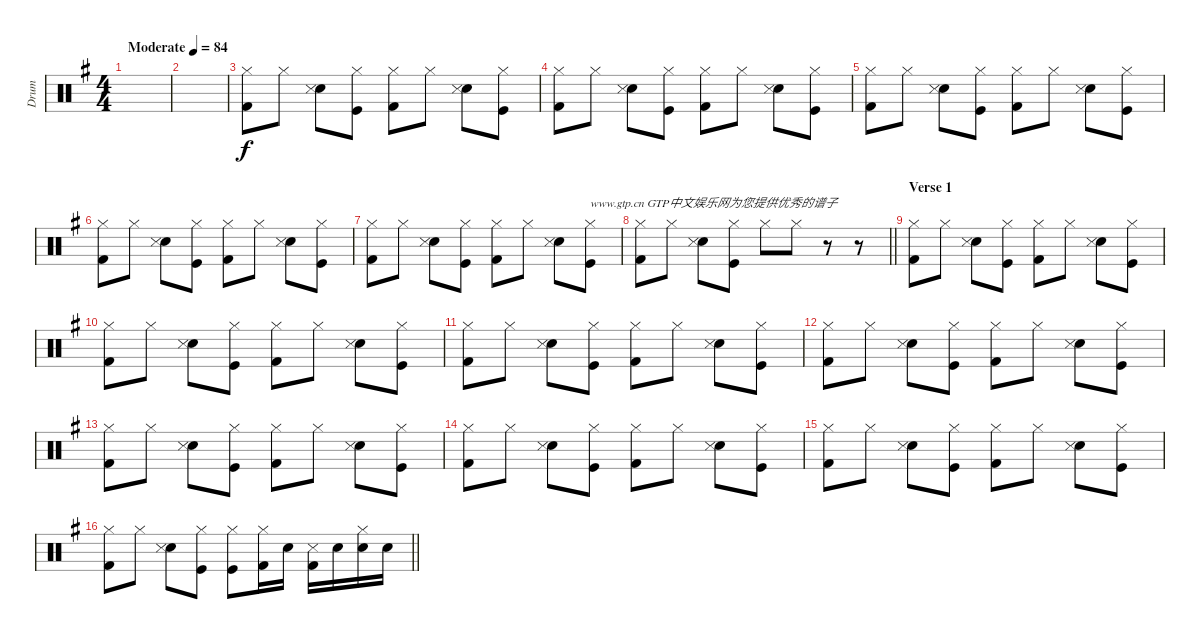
\track ("Drum" "Drum") {instrument percussion}
\staff {score}
\articulation defaults
\ts (4 4)
\tempo (84 "Moderate")
\clef neutral
\ks g
|
|
("Kick (hit) 2" "Hi-Hat (closed)").8 "Hi-Hat (closed)".8 ("Electric Snare (hit)" "Snare (side stick) 3").8 ("Kick (hit)" "Hi-Hat (closed)").8 ("Kick (hit) 2" "Hi-Hat (closed)").8 "Hi-Hat (closed)".8 ("Electric Snare (hit)" "Snare (side stick) 3").8 ("Kick (hit)" "Hi-Hat (closed)").8 |
("Kick (hit) 2" "Hi-Hat (closed)").8 "Hi-Hat (closed)".8 ("Electric Snare (hit)" "Snare (side stick) 3").8 ("Kick (hit)" "Hi-Hat (closed)").8 ("Kick (hit) 2" "Hi-Hat (closed)").8 "Hi-Hat (closed)".8 ("Electric Snare (hit)" "Snare (side stick) 3").8 ("Kick (hit)" "Hi-Hat (closed)").8 |
("Kick (hit) 2" "Hi-Hat (closed)").8 "Hi-Hat (closed)".8 ("Electric Snare (hit)" "Snare (side stick) 3").8 ("Kick (hit)" "Hi-Hat (closed)").8 ("Kick (hit) 2" "Hi-Hat (closed)").8 "Hi-Hat (closed)".8 ("Electric Snare (hit)" "Snare (side stick) 3").8 ("Kick (hit)" "Hi-Hat (closed)").8 |
("Kick (hit) 2" "Hi-Hat (closed)").8 "Hi-Hat (closed)".8 ("Electric Snare (hit)" "Snare (side stick) 3").8 ("Kick (hit)" "Hi-Hat (closed)").8 ("Kick (hit) 2" "Hi-Hat (closed)").8 "Hi-Hat (closed)".8 ("Electric Snare (hit)" "Snare (side stick) 3").8 ("Kick (hit)" "Hi-Hat (closed)").8 |
("Kick (hit) 2" "Hi-Hat (closed)").8 "Hi-Hat (closed)".8 ("Electric Snare (hit)" "Snare (side stick) 3").8 ("Kick (hit)" "Hi-Hat (closed)").8 ("Kick (hit) 2" "Hi-Hat (closed)").8 "Hi-Hat (closed)".8 ("Electric Snare (hit)" "Snare (side stick) 3").8 ("Kick (hit)" "Hi-Hat (closed)").8{txt "www.gtp.cn GTP中文娱乐网为您提供优秀的谱子"} |
\barLineRight lightlight
("Kick (hit) 2" "Hi-Hat (closed)").8 "Hi-Hat (closed)".8 ("Electric Snare (hit)" "Snare (side stick) 3").8 ("Kick (hit)" "Hi-Hat (closed)").8 "Hi-Hat (closed)".8 "Hi-Hat (closed)".8 r.8 r.8 |
\section ("" "Verse 1")
("Kick (hit) 2" "Hi-Hat (closed)").8 "Hi-Hat (closed)".8 ("Electric Snare (hit)" "Snare (side stick) 3").8 ("Kick (hit)" "Hi-Hat (closed)").8 ("Kick (hit) 2" "Hi-Hat (closed)").8 "Hi-Hat (closed)".8 ("Electric Snare (hit)" "Snare (side stick) 3").8 ("Kick (hit)" "Hi-Hat (closed)").8 |
("Kick (hit) 2" "Hi-Hat (closed)").8 "Hi-Hat (closed)".8 ("Electric Snare (hit)" "Snare (side stick) 3").8 ("Kick (hit)" "Hi-Hat (closed)").8 ("Kick (hit) 2" "Hi-Hat (closed)").8 "Hi-Hat (closed)".8 ("Electric Snare (hit)" "Snare (side stick) 3").8 ("Kick (hit)" "Hi-Hat (closed)").8 |
("Kick (hit) 2" "Hi-Hat (closed)").8 "Hi-Hat (closed)".8 ("Electric Snare (hit)" "Snare (side stick) 3").8 ("Kick (hit)" "Hi-Hat (closed)").8 ("Kick (hit) 2" "Hi-Hat (closed)").8 "Hi-Hat (closed)".8 ("Electric Snare (hit)" "Snare (side stick) 3").8 ("Kick (hit)" "Hi-Hat (closed)").8 |
("Kick (hit) 2" "Hi-Hat (closed)").8 "Hi-Hat (closed)".8 ("Electric Snare (hit)" "Snare (side stick) 3").8 ("Kick (hit)" "Hi-Hat (closed)").8 ("Kick (hit) 2" "Hi-Hat (closed)").8 "Hi-Hat (closed)".8 ("Electric Snare (hit)" "Snare (side stick) 3").8 ("Kick (hit)" "Hi-Hat (closed)").8 |
("Kick (hit) 2" "Hi-Hat (closed)").8 "Hi-Hat (closed)".8 ("Electric Snare (hit)" "Snare (side stick) 3").8 ("Kick (hit)" "Hi-Hat (closed)").8 ("Kick (hit) 2" "Hi-Hat (closed)").8 "Hi-Hat (closed)".8 ("Electric Snare (hit)" "Snare (side stick) 3").8 ("Kick (hit)" "Hi-Hat (closed)").8 |
("Kick (hit) 2" "Hi-Hat (closed)").8 "Hi-Hat (closed)".8 ("Electric Snare (hit)" "Snare (side stick) 3").8 ("Kick (hit)" "Hi-Hat (closed)").8 ("Kick (hit) 2" "Hi-Hat (closed)").8 "Hi-Hat (closed)".8 ("Electric Snare (hit)" "Snare (side stick) 3").8 ("Kick (hit)" "Hi-Hat (closed)").8 |
("Kick (hit) 2" "Hi-Hat (closed)").8 "Hi-Hat (closed)".8 ("Electric Snare (hit)" "Snare (side stick) 3").8 ("Kick (hit)" "Hi-Hat (closed)").8 ("Kick (hit) 2" "Hi-Hat (closed)").8 "Hi-Hat (closed)".8 ("Electric Snare (hit)" "Snare (side stick) 3").8 ("Kick (hit)" "Hi-Hat (closed)").8 |
\barLineRight lightlight
("Kick (hit) 2" "Hi-Hat (closed)").8 "Hi-Hat (closed)".8 ("Electric Snare (hit)" "Snare (side stick) 3").8 ("Kick (hit)" "Hi-Hat (closed)").8 ("Kick (hit)" "Hi-Hat (closed)").8 ("Kick (hit) 2" "Hi-Hat (closed)").16 "Electric Snare (hit)".16 ("Kick (hit) 2" "Snare (side stick) 3").16 "Electric Snare (hit)".16 ("Electric Snare (hit)" "Hi-Hat (closed)").16 "Electric Snare (hit)".16
